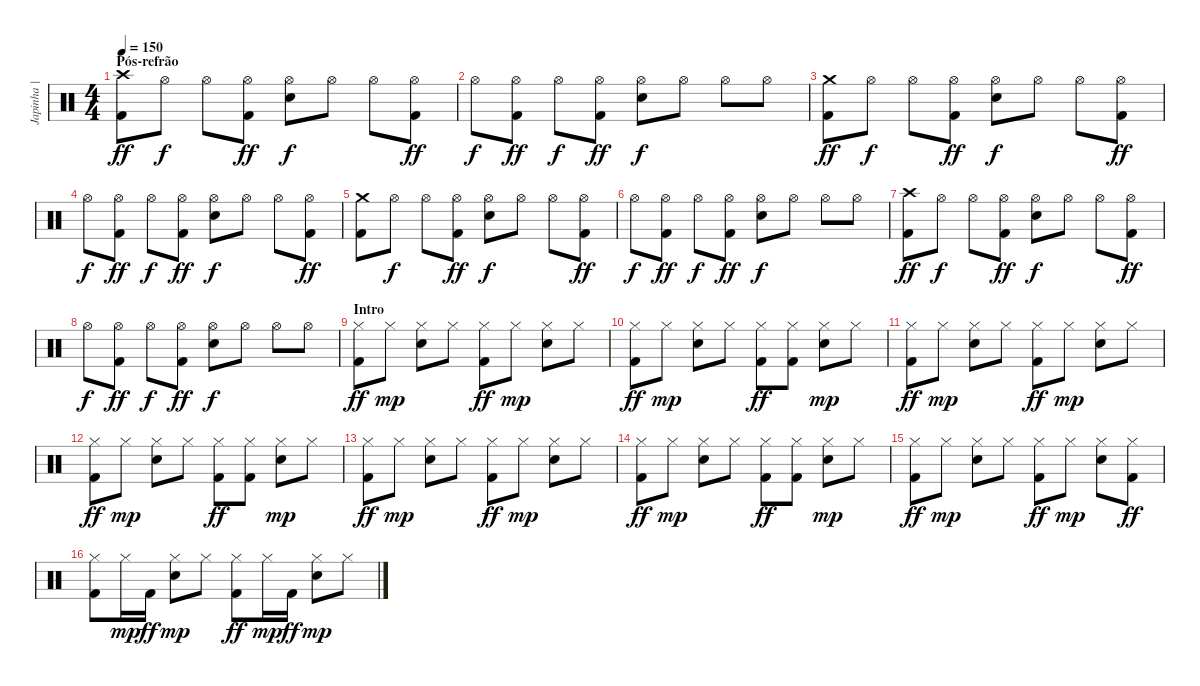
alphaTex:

\track ("Japinha | Bateria" "Japinha | ") {instrument percussion}
\staff {score}
\articulation defaults
\ts (4 4)
\section ("" "Pós-refrão")
\tempo 150
\clef neutral
\ks c
("Crash high (hit)" "Kick (hit) 2").8{dy ff} "Hi-Hat (open)".8{dy f} "Hi-Hat (open)".8 ("Hi-Hat (open)" "Kick (hit) 2").8{dy ff} ("Hi-Hat (open)" "Electric Snare (hit)").8{dy f} "Hi-Hat (open)".8 "Hi-Hat (open)".8 ("Hi-Hat (open)" "Kick (hit) 2").8{dy ff} |
"Hi-Hat (open)".8{dy f} ("Hi-Hat (open)" "Kick (hit) 2").8{dy ff} "Hi-Hat (open)".8{dy f} ("Hi-Hat (open)" "Kick (hit) 2").8{dy ff} ("Hi-Hat (open)" "Electric Snare (hit)").8{dy f} "Hi-Hat (open)".8 "Hi-Hat (open)".8 "Hi-Hat (open)".8 |
("Crash medium (hit)" "Kick (hit) 2").8{dy ff} "Hi-Hat (open)".8{dy f} "Hi-Hat (open)".8 ("Hi-Hat (open)" "Kick (hit) 2").8{dy ff} ("Hi-Hat (open)" "Electric Snare (hit)").8{dy f} "Hi-Hat (open)".8 "Hi-Hat (open)".8 ("Hi-Hat (open)" "Kick (hit) 2").8{dy ff} |
"Hi-Hat (open)".8{dy f} ("Hi-Hat (open)" "Kick (hit) 2").8{dy ff} "Hi-Hat (open)".8{dy f} ("Hi-Hat (open)" "Kick (hit) 2").8{dy ff} ("Hi-Hat (open)" "Electric Snare (hit)").8{dy f} "Hi-Hat (open)".8 "Hi-Hat (open)".8 ("Hi-Hat (open)" "Kick (hit) 2").8{dy ff} |
("Crash medium (hit)" "Kick (hit) 2").8 "Hi-Hat (open)".8{dy f} "Hi-Hat (open)".8 ("Hi-Hat (open)" "Kick (hit) 2").8{dy ff} ("Hi-Hat (open)" "Electric Snare (hit)").8{dy f} "Hi-Hat (open)".8 "Hi-Hat (open)".8 ("Hi-Hat (open)" "Kick (hit) 2").8{dy ff} |
"Hi-Hat (open)".8{dy f} ("Hi-Hat (open)" "Kick (hit) 2").8{dy ff} "Hi-Hat (open)".8{dy f} ("Hi-Hat (open)" "Kick (hit) 2").8{dy ff} ("Hi-Hat (open)" "Electric Snare (hit)").8{dy f} "Hi-Hat (open)".8 "Hi-Hat (open)".8 "Hi-Hat (open)".8 |
("Crash high (hit)" "Kick (hit) 2").8{dy ff} "Hi-Hat (open)".8{dy f} "Hi-Hat (open)".8 ("Hi-Hat (open)" "Kick (hit) 2").8{dy ff} ("Hi-Hat (open)" "Electric Snare (hit)").8{dy f} "Hi-Hat (open)".8 "Hi-Hat (open)".8 ("Hi-Hat (open)" "Kick (hit) 2").8{dy ff} |
"Hi-Hat (open)".8{dy f} ("Hi-Hat (open)" "Kick (hit) 2").8{dy ff} "Hi-Hat (open)".8{dy f} ("Hi-Hat (open)" "Kick (hit) 2").8{dy ff} ("Hi-Hat (open)" "Electric Snare (hit)").8{dy f} "Hi-Hat (open)".8 "Hi-Hat (open)".8 "Hi-Hat (open)".8 |
\section ("" "Intro")
("Hi-Hat (closed)" "Kick (hit) 2").8{dy ff} "Hi-Hat (closed)".8{dy mp} ("Hi-Hat (closed)" "Electric Snare (hit)").8 "Hi-Hat (closed)".8 ("Hi-Hat (closed)" "Kick (hit) 2").8{dy ff} "Hi-Hat (closed)".8{dy mp} ("Hi-Hat (closed)" "Electric Snare (hit)").8 "Hi-Hat (closed)".8 |
("Hi-Hat (closed)" "Kick (hit) 2").8{dy ff} "Hi-Hat (closed)".8{dy mp} ("Hi-Hat (closed)" "Electric Snare (hit)").8 "Hi-Hat (closed)".8 ("Hi-Hat (closed)" "Kick (hit) 2").8{dy ff} ("Hi-Hat (closed)" "Kick (hit) 2").8 ("Hi-Hat (closed)" "Electric Snare (hit)").8{dy mp} "Hi-Hat (closed)".8 |
("Hi-Hat (closed)" "Kick (hit) 2").8{dy ff} "Hi-Hat (closed)".8{dy mp} ("Hi-Hat (closed)" "Electric Snare (hit)").8 "Hi-Hat (closed)".8 ("Hi-Hat (closed)" "Kick (hit) 2").8{dy ff} "Hi-Hat (closed)".8{dy mp} ("Hi-Hat (closed)" "Electric Snare (hit)").8 "Hi-Hat (closed)".8 |
("Hi-Hat (closed)" "Kick (hit) 2").8{dy ff} "Hi-Hat (closed)".8{dy mp} ("Hi-Hat (closed)" "Electric Snare (hit)").8 "Hi-Hat (closed)".8 ("Hi-Hat (closed)" "Kick (hit) 2").8{dy ff} ("Hi-Hat (closed)" "Kick (hit) 2").8 ("Hi-Hat (closed)" "Electric Snare (hit)").8{dy mp} "Hi-Hat (closed)".8 |
("Hi-Hat (closed)" "Kick (hit) 2").8{dy ff} "Hi-Hat (closed)".8{dy mp} ("Hi-Hat (closed)" "Electric Snare (hit)").8 "Hi-Hat (closed)".8 ("Hi-Hat (closed)" "Kick (hit) 2").8{dy ff} "Hi-Hat (closed)".8{dy mp} ("Hi-Hat (closed)" "Electric Snare (hit)").8 "Hi-Hat (closed)".8 |
("Hi-Hat (closed)" "Kick (hit) 2").8{dy ff} "Hi-Hat (closed)".8{dy mp} ("Hi-Hat (closed)" "Electric Snare (hit)").8 "Hi-Hat (closed)".8 ("Hi-Hat (closed)" "Kick (hit) 2").8{dy ff} ("Hi-Hat (closed)" "Kick (hit) 2").8 ("Hi-Hat (closed)" "Electric Snare (hit)").8{dy mp} "Hi-Hat (closed)".8 |
("Hi-Hat (closed)" "Kick (hit) 2").8{dy ff} "Hi-Hat (closed)".8{dy mp} ("Hi-Hat (closed)" "Electric Snare (hit)").8 "Hi-Hat (closed)".8 ("Hi-Hat (closed)" "Kick (hit) 2").8{dy ff} "Hi-Hat (closed)".8{dy mp} ("Hi-Hat (closed)" "Electric Snare (hit)").8 ("Hi-Hat (closed)" "Kick (hit) 2").8{dy ff} |
("Hi-Hat (closed)" "Kick (hit) 2").8 "Hi-Hat (closed)".16{dy mp} "Kick (hit) 2".16{dy ff} ("Hi-Hat (closed)" "Electric Snare (hit)").8{dy mp} "Hi-Hat (closed)".8 ("Hi-Hat (closed)" "Kick (hit) 2").8{dy ff} "Hi-Hat (closed)".16{dy mp} "Kick (hit) 2".16{dy ff} ("Hi-Hat (closed)" "Electric Snare (hit)").8{dy mp} "Hi-Hat (closed)".8
